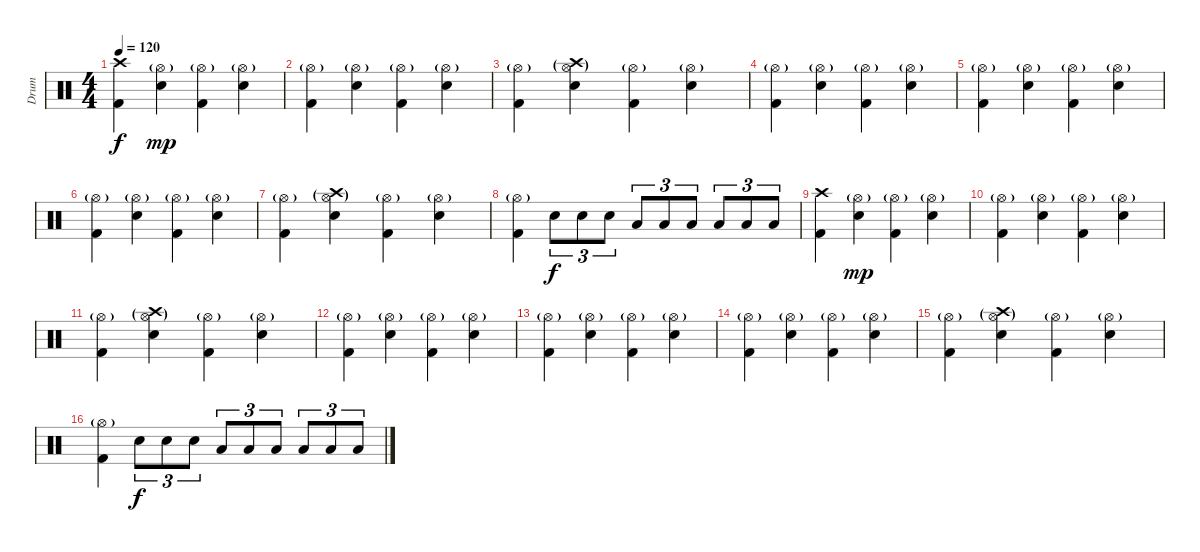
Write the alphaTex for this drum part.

\track ("Drum" "Drum") {instrument percussion}
\staff {score}
\articulation defaults
\ts (4 4)
\tempo 120
\clef neutral
\ks c
("Crash high (hit)" "Kick (hit) 2").4{dy f} ("Electric Snare (hit)" "Hi-Hat (open)"{g}).4{dy mp} ("Hi-Hat (open)"{g} "Kick (hit) 2").4 ("Electric Snare (hit)" "Hi-Hat (open)"{g}).4 |
("Hi-Hat (open)"{g} "Kick (hit) 2").4 ("Electric Snare (hit)" "Hi-Hat (open)"{g}).4 ("Hi-Hat (open)"{g} "Kick (hit) 2").4 ("Electric Snare (hit)" "Hi-Hat (open)"{g}).4 |
("Hi-Hat (open)"{g} "Kick (hit) 2").4 ("Electric Snare (hit)" "Hi-Hat (open)"{g} "Crash high (hit)"{g}).4 ("Hi-Hat (open)"{g} "Kick (hit) 2").4 ("Electric Snare (hit)" "Hi-Hat (open)"{g}).4 |
("Hi-Hat (open)"{g} "Kick (hit) 2").4 ("Electric Snare (hit)" "Hi-Hat (open)"{g}).4 ("Hi-Hat (open)"{g} "Kick (hit) 2").4 ("Electric Snare (hit)" "Hi-Hat (open)"{g}).4 |
("Hi-Hat (open)"{g} "Kick (hit) 2").4 ("Electric Snare (hit)" "Hi-Hat (open)"{g}).4 ("Hi-Hat (open)"{g} "Kick (hit) 2").4 ("Electric Snare (hit)" "Hi-Hat (open)"{g}).4 |
("Hi-Hat (open)"{g} "Kick (hit) 2").4 ("Electric Snare (hit)" "Hi-Hat (open)"{g}).4 ("Hi-Hat (open)"{g} "Kick (hit) 2").4 ("Electric Snare (hit)" "Hi-Hat (open)"{g}).4 |
("Hi-Hat (open)"{g} "Kick (hit) 2").4 ("Electric Snare (hit)" "Hi-Hat (open)"{g} "Crash high (hit)"{g}).4 ("Hi-Hat (open)"{g} "Kick (hit) 2").4 ("Electric Snare (hit)" "Hi-Hat (open)"{g}).4 |
("Hi-Hat (open)"{g} "Kick (hit) 2").4 "Electric Snare (hit)".8{tu (3 2) dy f} "Electric Snare (hit)".8{tu (3 2)} "Electric Snare (hit)".8{tu (3 2)} "Low Tom (hit)".8{tu (3 2)} "Low Tom (hit)".8{tu (3 2)} "Low Tom (hit)".8{tu (3 2)} "Low Floor Tom (hit)".8{tu (3 2)} "Low Floor Tom (hit)".8{tu (3 2)} "Low Floor Tom (hit)".8{tu (3 2)} |
("Crash high (hit)" "Kick (hit) 2").4 ("Electric Snare (hit)" "Hi-Hat (open)"{g}).4{dy mp} ("Hi-Hat (open)"{g} "Kick (hit) 2").4 ("Electric Snare (hit)" "Hi-Hat (open)"{g}).4 |
("Hi-Hat (open)"{g} "Kick (hit) 2").4 ("Electric Snare (hit)" "Hi-Hat (open)"{g}).4 ("Hi-Hat (open)"{g} "Kick (hit) 2").4 ("Electric Snare (hit)" "Hi-Hat (open)"{g}).4 |
("Hi-Hat (open)"{g} "Kick (hit) 2").4 ("Electric Snare (hit)" "Hi-Hat (open)"{g} "Crash high (hit)"{g}).4 ("Hi-Hat (open)"{g} "Kick (hit) 2").4 ("Electric Snare (hit)" "Hi-Hat (open)"{g}).4 |
("Hi-Hat (open)"{g} "Kick (hit) 2").4 ("Electric Snare (hit)" "Hi-Hat (open)"{g}).4 ("Hi-Hat (open)"{g} "Kick (hit) 2").4 ("Electric Snare (hit)" "Hi-Hat (open)"{g}).4 |
("Hi-Hat (open)"{g} "Kick (hit) 2").4 ("Electric Snare (hit)" "Hi-Hat (open)"{g}).4 ("Hi-Hat (open)"{g} "Kick (hit) 2").4 ("Electric Snare (hit)" "Hi-Hat (open)"{g}).4 |
("Hi-Hat (open)"{g} "Kick (hit) 2").4 ("Electric Snare (hit)" "Hi-Hat (open)"{g}).4 ("Hi-Hat (open)"{g} "Kick (hit) 2").4 ("Electric Snare (hit)" "Hi-Hat (open)"{g}).4 |
("Hi-Hat (open)"{g} "Kick (hit) 2").4 ("Electric Snare (hit)" "Hi-Hat (open)"{g} "Crash high (hit)"{g}).4 ("Hi-Hat (open)"{g} "Kick (hit) 2").4 ("Electric Snare (hit)" "Hi-Hat (open)"{g}).4 |
("Hi-Hat (open)"{g} "Kick (hit) 2").4 "Electric Snare (hit)".8{tu (3 2) dy f} "Electric Snare (hit)".8{tu (3 2)} "Electric Snare (hit)".8{tu (3 2)} "Low Tom (hit)".8{tu (3 2)} "Low Tom (hit)".8{tu (3 2)} "Low Tom (hit)".8{tu (3 2)} "Low Floor Tom (hit)".8{tu (3 2)} "Low Floor Tom (hit)".8{tu (3 2)} "Low Floor Tom (hit)".8{tu (3 2)}
